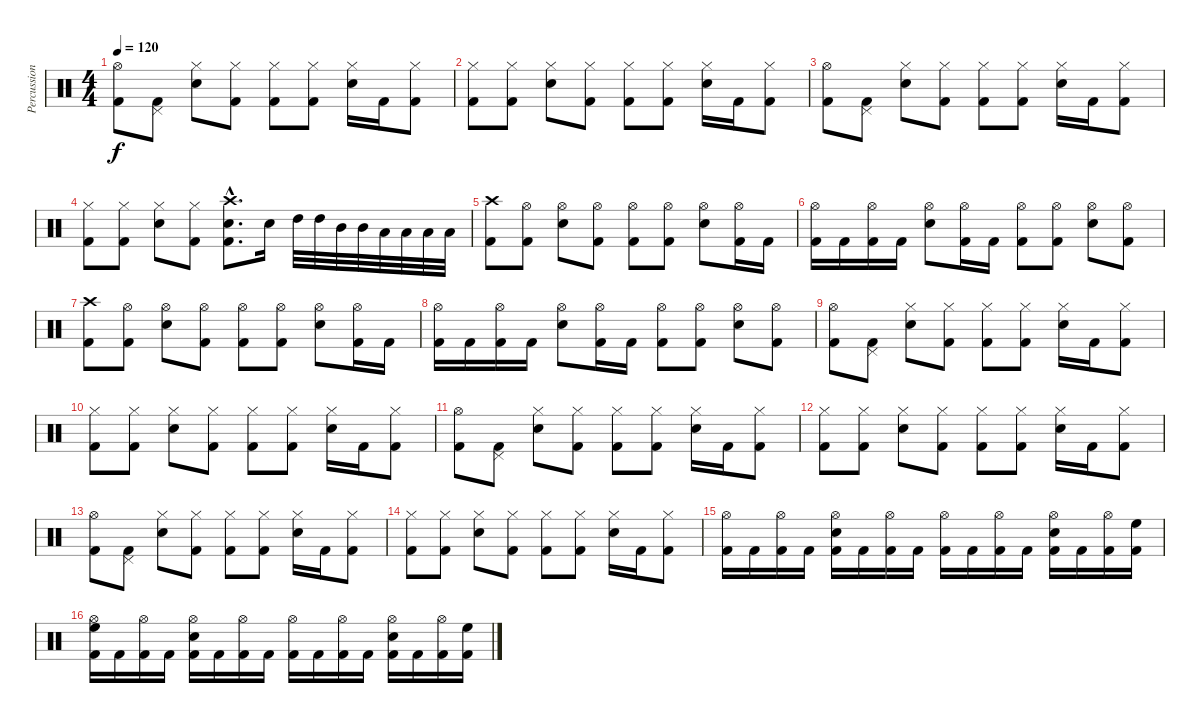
\track ("Percussion" "Percussion") {instrument percussion}
\staff {score}
\articulation defaults
\ts (4 4)
\tempo 120
\clef neutral
\ks c
("Hi-Hat (open)" "Kick (hit) 2").8{dy f volume 8} ("Pedal Hi-Hat (hit)" "Kick (hit) 2").8 ("Hi-Hat (closed)" "Snare (hit) 2").8 ("Hi-Hat (closed)" "Kick (hit) 2").8 ("Hi-Hat (closed)" "Kick (hit) 2").8 ("Hi-Hat (closed)" "Kick (hit) 2").8 ("Hi-Hat (closed)" "Snare (hit) 2").16 "Kick (hit) 2".16 ("Hi-Hat (closed)" "Kick (hit) 2").8 |
("Hi-Hat (closed)" "Kick (hit) 2").8 ("Hi-Hat (closed)" "Kick (hit) 2").8 ("Hi-Hat (closed)" "Snare (hit) 2").8 ("Hi-Hat (closed)" "Kick (hit) 2").8 ("Hi-Hat (closed)" "Kick (hit) 2").8 ("Hi-Hat (closed)" "Kick (hit) 2").8 ("Hi-Hat (closed)" "Snare (hit) 2").16 "Kick (hit) 2".16 ("Hi-Hat (closed)" "Kick (hit) 2").8 |
("Hi-Hat (open)" "Kick (hit) 2").8 ("Pedal Hi-Hat (hit)" "Kick (hit) 2").8 ("Hi-Hat (closed)" "Snare (hit) 2").8 ("Hi-Hat (closed)" "Kick (hit) 2").8 ("Hi-Hat (closed)" "Kick (hit) 2").8 ("Hi-Hat (closed)" "Kick (hit) 2").8 ("Hi-Hat (closed)" "Snare (hit) 2").16 "Kick (hit) 2".16 ("Hi-Hat (closed)" "Kick (hit) 2").8 |
("Hi-Hat (closed)" "Kick (hit) 2").8{volume 16} ("Hi-Hat (closed)" "Kick (hit) 2").8 ("Hi-Hat (closed)" "Snare (hit) 2").8 ("Hi-Hat (closed)" "Kick (hit) 2").8 ("Crash high (hit)"{hac} "Snare (hit) 2"{hac} "Kick (hit) 2"{hac}).8{d} "Snare (hit) 2".16 "High Tom (hit)".32 "High Tom (hit)".32 "Mid Tom (hit)".32 "Mid Tom (hit)".32 "Low Tom (hit)".32 "Low Tom (hit)".32 "Low Tom (hit)".32 "Low Tom (hit)".32 |
("Crash high (hit)" "Kick (hit) 2").8{volume 16} ("Hi-Hat (open)" "Kick (hit) 2").8 ("Hi-Hat (open)" "Snare (hit) 2").8 ("Hi-Hat (open)" "Kick (hit) 2").8 ("Hi-Hat (open)" "Kick (hit) 2").8 ("Hi-Hat (open)" "Kick (hit) 2").8 ("Hi-Hat (open)" "Snare (hit) 2").8 ("Hi-Hat (open)" "Kick (hit) 2").16 "Kick (hit) 2".16 |
("Hi-Hat (open)" "Kick (hit) 2").16 "Kick (hit) 2".16 ("Hi-Hat (open)" "Kick (hit) 2").16 "Kick (hit) 2".16 ("Hi-Hat (open)" "Snare (hit) 2").8 ("Hi-Hat (open)" "Kick (hit) 2").16 "Kick (hit) 2".16 ("Hi-Hat (open)" "Kick (hit) 2").8 ("Hi-Hat (open)" "Kick (hit) 2").8 ("Hi-Hat (open)" "Snare (hit) 2").8 ("Hi-Hat (open)" "Kick (hit) 2").8 |
("Crash high (hit)" "Kick (hit) 2").8{volume 16} ("Hi-Hat (open)" "Kick (hit) 2").8 ("Hi-Hat (open)" "Snare (hit) 2").8 ("Hi-Hat (open)" "Kick (hit) 2").8 ("Hi-Hat (open)" "Kick (hit) 2").8 ("Hi-Hat (open)" "Kick (hit) 2").8 ("Hi-Hat (open)" "Snare (hit) 2").8 ("Hi-Hat (open)" "Kick (hit) 2").16 "Kick (hit) 2".16 |
("Hi-Hat (open)" "Kick (hit) 2").16 "Kick (hit) 2".16 ("Hi-Hat (open)" "Kick (hit) 2").16 "Kick (hit) 2".16 ("Hi-Hat (open)" "Snare (hit) 2").8 ("Hi-Hat (open)" "Kick (hit) 2").16 "Kick (hit) 2".16 ("Hi-Hat (open)" "Kick (hit) 2").8 ("Hi-Hat (open)" "Kick (hit) 2").8 ("Hi-Hat (open)" "Snare (hit) 2").8 ("Hi-Hat (open)" "Kick (hit) 2").8 |
("Hi-Hat (open)" "Kick (hit) 2").8{volume 8} ("Pedal Hi-Hat (hit)" "Kick (hit) 2").8 ("Hi-Hat (closed)" "Snare (hit) 2").8 ("Hi-Hat (closed)" "Kick (hit) 2").8 ("Hi-Hat (closed)" "Kick (hit) 2").8 ("Hi-Hat (closed)" "Kick (hit) 2").8 ("Hi-Hat (closed)" "Snare (hit) 2").16 "Kick (hit) 2".16 ("Hi-Hat (closed)" "Kick (hit) 2").8 |
("Hi-Hat (closed)" "Kick (hit) 2").8 ("Hi-Hat (closed)" "Kick (hit) 2").8 ("Hi-Hat (closed)" "Snare (hit) 2").8 ("Hi-Hat (closed)" "Kick (hit) 2").8 ("Hi-Hat (closed)" "Kick (hit) 2").8 ("Hi-Hat (closed)" "Kick (hit) 2").8 ("Hi-Hat (closed)" "Snare (hit) 2").16 "Kick (hit) 2".16 ("Hi-Hat (closed)" "Kick (hit) 2").8 |
("Hi-Hat (open)" "Kick (hit) 2").8{volume 8} ("Pedal Hi-Hat (hit)" "Kick (hit) 2").8 ("Hi-Hat (closed)" "Snare (hit) 2").8 ("Hi-Hat (closed)" "Kick (hit) 2").8 ("Hi-Hat (closed)" "Kick (hit) 2").8 ("Hi-Hat (closed)" "Kick (hit) 2").8 ("Hi-Hat (closed)" "Snare (hit) 2").16 "Kick (hit) 2".16 ("Hi-Hat (closed)" "Kick (hit) 2").8 |
("Hi-Hat (closed)" "Kick (hit) 2").8 ("Hi-Hat (closed)" "Kick (hit) 2").8 ("Hi-Hat (closed)" "Snare (hit) 2").8 ("Hi-Hat (closed)" "Kick (hit) 2").8 ("Hi-Hat (closed)" "Kick (hit) 2").8 ("Hi-Hat (closed)" "Kick (hit) 2").8 ("Hi-Hat (closed)" "Snare (hit) 2").16 "Kick (hit) 2".16 ("Hi-Hat (closed)" "Kick (hit) 2").8 |
("Hi-Hat (open)" "Kick (hit) 2").8{volume 8} ("Pedal Hi-Hat (hit)" "Kick (hit) 2").8 ("Hi-Hat (closed)" "Snare (hit) 2").8 ("Hi-Hat (closed)" "Kick (hit) 2").8 ("Hi-Hat (closed)" "Kick (hit) 2").8 ("Hi-Hat (closed)" "Kick (hit) 2").8 ("Hi-Hat (closed)" "Snare (hit) 2").16 "Kick (hit) 2".16 ("Hi-Hat (closed)" "Kick (hit) 2").8 |
("Hi-Hat (closed)" "Kick (hit) 2").8 ("Hi-Hat (closed)" "Kick (hit) 2").8 ("Hi-Hat (closed)" "Snare (hit) 2").8 ("Hi-Hat (closed)" "Kick (hit) 2").8 ("Hi-Hat (closed)" "Kick (hit) 2").8 ("Hi-Hat (closed)" "Kick (hit) 2").8 ("Hi-Hat (closed)" "Snare (hit) 2").16 "Kick (hit) 2".16 ("Hi-Hat (closed)" "Kick (hit) 2").8 |
("Hi-Hat (open)" "Kick (hit) 2").16{volume 14} "Kick (hit) 2".16 ("Hi-Hat (open)" "Kick (hit) 2").16 "Kick (hit) 2".16 ("Hi-Hat (open)" "Snare (hit) 2" "Kick (hit) 2").16 "Kick (hit) 2".16 ("Hi-Hat (open)" "Kick (hit) 2").16 "Kick (hit) 2".16 ("Hi-Hat (open)" "Kick (hit) 2").16 "Kick (hit) 2".16 ("Hi-Hat (open)" "Kick (hit) 2").16 "Kick (hit) 2".16 ("Hi-Hat (open)" "Snare (hit) 2" "Kick (hit) 2").16 "Kick (hit) 2".16 ("Hi-Hat (open)" "Kick (hit) 2").16 ("High Floor Tom (hit)" "Kick (hit) 2").16 |
("Hi-Hat (open)" "High Floor Tom (hit)" "Kick (hit) 2").16 "Kick (hit) 2".16 ("Hi-Hat (open)" "Kick (hit) 2").16 "Kick (hit) 2".16 ("Hi-Hat (open)" "Snare (hit) 2" "Kick (hit) 2").16 "Kick (hit) 2".16 ("Hi-Hat (open)" "Kick (hit) 2").16 "Kick (hit) 2".16 ("Hi-Hat (open)" "Kick (hit) 2").16 "Kick (hit) 2".16 ("Hi-Hat (open)" "Kick (hit) 2").16 "Kick (hit) 2".16 ("Hi-Hat (open)" "Snare (hit) 2" "Kick (hit) 2").16 "Kick (hit) 2".16 ("Hi-Hat (open)" "Kick (hit) 2").16 ("High Floor Tom (hit)" "Kick (hit) 2").16
